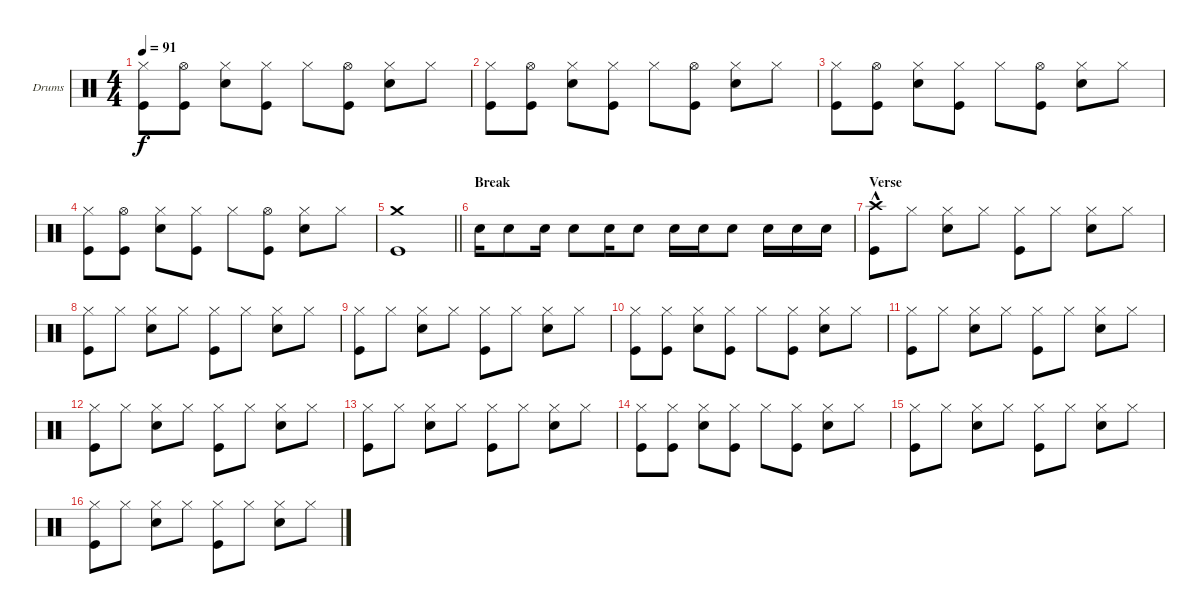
\bracketExtendMode groupsimilarinstruments
\firstSystemTrackNameOrientation horizontal
\otherSystemsTrackNameOrientation horizontal
\track ("Fabrizio" "Drums") {instrument percussion}
\staff {score}
\articulation defaults
\ts (4 4)
\tempo 91
\clef neutral
\ks c
("Hi-Hat (closed)" "Kick (hit)").8{dy f} ("Hi-Hat (open)" "Kick (hit)").8 ("Snare (hit) 2" "Hi-Hat (closed)").8 ("Hi-Hat (closed)" "Kick (hit)").8 "Hi-Hat (closed)".8 ("Hi-Hat (open)" "Kick (hit)").8 ("Snare (hit) 2" "Hi-Hat (closed)").8 "Hi-Hat (closed)".8 |
("Hi-Hat (closed)" "Kick (hit)").8 ("Hi-Hat (open)" "Kick (hit)").8 ("Snare (hit) 2" "Hi-Hat (closed)").8 ("Hi-Hat (closed)" "Kick (hit)").8 "Hi-Hat (closed)".8 ("Hi-Hat (open)" "Kick (hit)").8 ("Snare (hit) 2" "Hi-Hat (closed)").8 "Hi-Hat (closed)".8 |
("Hi-Hat (closed)" "Kick (hit)").8 ("Hi-Hat (open)" "Kick (hit)").8 ("Snare (hit) 2" "Hi-Hat (closed)").8 ("Hi-Hat (closed)" "Kick (hit)").8 "Hi-Hat (closed)".8 ("Hi-Hat (open)" "Kick (hit)").8 ("Snare (hit) 2" "Hi-Hat (closed)").8 "Hi-Hat (closed)".8 |
("Hi-Hat (closed)" "Kick (hit)").8 ("Hi-Hat (open)" "Kick (hit)").8 ("Snare (hit) 2" "Hi-Hat (closed)").8 ("Hi-Hat (closed)" "Kick (hit)").8 "Hi-Hat (closed)".8 ("Hi-Hat (open)" "Kick (hit)").8 ("Snare (hit) 2" "Hi-Hat (closed)").8 "Hi-Hat (closed)".8 |
\barLineRight lightlight
("Crash medium (hit)" "Kick (hit)").1 |
\section ("" "Break")
"Snare (hit) 2".16 "Snare (hit) 2".8 "Snare (hit) 2".16 "Snare (hit) 2".8 "Snare (hit) 2".16 "Snare (hit) 2".8 "Snare (hit) 2".16 "Snare (hit) 2".16 "Snare (hit) 2".8 "Snare (hit) 2".16 "Snare (hit) 2".16 "Snare (hit) 2".16 |
\section ("" "Verse")
("Crash high (hit)"{hac} "Kick (hit)").8 "Hi-Hat (closed)".8 ("Hi-Hat (closed)" "Snare (hit) 2").8 "Hi-Hat (closed)".8 ("Hi-Hat (closed)" "Kick (hit)").8 "Hi-Hat (closed)".8 ("Hi-Hat (closed)" "Snare (hit) 2").8 "Hi-Hat (closed)".8 |
("Hi-Hat (closed)" "Kick (hit)").8 "Hi-Hat (closed)".8 ("Hi-Hat (closed)" "Snare (hit) 2").8 "Hi-Hat (closed)".8 ("Hi-Hat (closed)" "Kick (hit)").8 "Hi-Hat (closed)".8 ("Hi-Hat (closed)" "Snare (hit) 2").8 "Hi-Hat (closed)".8 |
("Hi-Hat (closed)" "Kick (hit)").8 "Hi-Hat (closed)".8 ("Hi-Hat (closed)" "Snare (hit) 2").8 "Hi-Hat (closed)".8 ("Hi-Hat (closed)" "Kick (hit)").8 "Hi-Hat (closed)".8 ("Hi-Hat (closed)" "Snare (hit) 2").8 "Hi-Hat (closed)".8 |
("Hi-Hat (closed)" "Kick (hit)").8 ("Hi-Hat (closed)" "Kick (hit)").8 ("Hi-Hat (closed)" "Snare (hit) 2").8 ("Hi-Hat (closed)" "Kick (hit)").8 "Hi-Hat (closed)".8 ("Hi-Hat (closed)" "Kick (hit)").8 ("Hi-Hat (closed)" "Snare (hit) 2").8 "Hi-Hat (closed)".8 |
("Hi-Hat (closed)" "Kick (hit)").8 "Hi-Hat (closed)".8 ("Hi-Hat (closed)" "Snare (hit) 2").8 "Hi-Hat (closed)".8 ("Hi-Hat (closed)" "Kick (hit)").8 "Hi-Hat (closed)".8 ("Hi-Hat (closed)" "Snare (hit) 2").8 "Hi-Hat (closed)".8 |
("Hi-Hat (closed)" "Kick (hit)").8 "Hi-Hat (closed)".8 ("Hi-Hat (closed)" "Snare (hit) 2").8 "Hi-Hat (closed)".8 ("Hi-Hat (closed)" "Kick (hit)").8 "Hi-Hat (closed)".8 ("Hi-Hat (closed)" "Snare (hit) 2").8 "Hi-Hat (closed)".8 |
("Hi-Hat (closed)" "Kick (hit)").8 "Hi-Hat (closed)".8 ("Hi-Hat (closed)" "Snare (hit) 2").8 "Hi-Hat (closed)".8 ("Hi-Hat (closed)" "Kick (hit)").8 "Hi-Hat (closed)".8 ("Hi-Hat (closed)" "Snare (hit) 2").8 "Hi-Hat (closed)".8 |
("Hi-Hat (closed)" "Kick (hit)").8 ("Hi-Hat (closed)" "Kick (hit)").8 ("Hi-Hat (closed)" "Snare (hit) 2").8 ("Hi-Hat (closed)" "Kick (hit)").8 "Hi-Hat (closed)".8 ("Hi-Hat (closed)" "Kick (hit)").8 ("Hi-Hat (closed)" "Snare (hit) 2").8 "Hi-Hat (closed)".8 |
("Hi-Hat (closed)" "Kick (hit)").8 "Hi-Hat (closed)".8 ("Hi-Hat (closed)" "Snare (hit) 2").8 "Hi-Hat (closed)".8 ("Hi-Hat (closed)" "Kick (hit)").8 "Hi-Hat (closed)".8 ("Hi-Hat (closed)" "Snare (hit) 2").8 "Hi-Hat (closed)".8 |
("Hi-Hat (closed)" "Kick (hit)").8 "Hi-Hat (closed)".8 ("Hi-Hat (closed)" "Snare (hit) 2").8 "Hi-Hat (closed)".8 ("Hi-Hat (closed)" "Kick (hit)").8 "Hi-Hat (closed)".8 ("Hi-Hat (closed)" "Snare (hit) 2").8 "Hi-Hat (closed)".8
